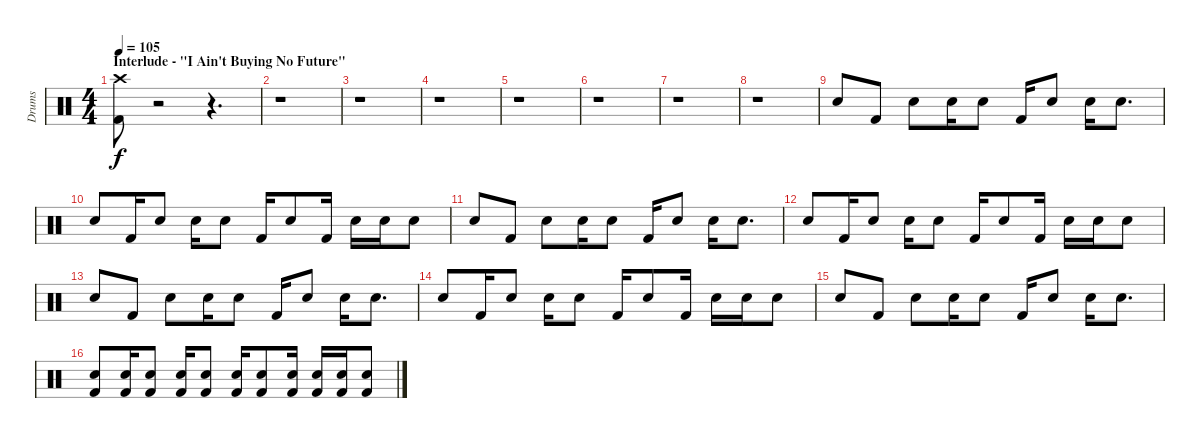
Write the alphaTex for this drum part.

\track ("Drums" "Drums") {instrument percussion}
\staff {score}
\articulation defaults
\ts (4 4)
\section ("" "Interlude - \"I Ain't Buying No Future\"")
\tempo 105
\clef neutral
\ks c
("Kick (hit) 2" "Crash high (hit)").8{dy f} r.2 r.4{d} |
r.1 |
r.1 |
r.1 |
r.1 |
r.1 |
r.1 |
r.1 |
"Snare (hit) 2".8 "Kick (hit) 2".8 "Snare (hit) 2".8 "Snare (hit) 2".16 "Snare (hit) 2".8 "Kick (hit) 2".16 "Snare (hit) 2".8 "Snare (hit) 2".16 "Snare (hit) 2".8{d} |
"Snare (hit) 2".8 "Kick (hit) 2".16 "Snare (hit) 2".8 "Snare (hit) 2".16 "Snare (hit) 2".8 "Kick (hit) 2".16 "Snare (hit) 2".8 "Kick (hit) 2".16 "Snare (hit) 2".16 "Snare (hit) 2".16 "Snare (hit) 2".8 |
"Snare (hit) 2".8 "Kick (hit) 2".8 "Snare (hit) 2".8 "Snare (hit) 2".16 "Snare (hit) 2".8 "Kick (hit) 2".16 "Snare (hit) 2".8 "Snare (hit) 2".16 "Snare (hit) 2".8{d} |
"Snare (hit) 2".8 "Kick (hit) 2".16 "Snare (hit) 2".8 "Snare (hit) 2".16 "Snare (hit) 2".8 "Kick (hit) 2".16 "Snare (hit) 2".8 "Kick (hit) 2".16 "Snare (hit) 2".16 "Snare (hit) 2".16 "Snare (hit) 2".8 |
"Snare (hit) 2".8 "Kick (hit) 2".8 "Snare (hit) 2".8 "Snare (hit) 2".16 "Snare (hit) 2".8 "Kick (hit) 2".16 "Snare (hit) 2".8 "Snare (hit) 2".16 "Snare (hit) 2".8{d} |
"Snare (hit) 2".8 "Kick (hit) 2".16 "Snare (hit) 2".8 "Snare (hit) 2".16 "Snare (hit) 2".8 "Kick (hit) 2".16 "Snare (hit) 2".8 "Kick (hit) 2".16 "Snare (hit) 2".16 "Snare (hit) 2".16 "Snare (hit) 2".8 |
"Snare (hit) 2".8 "Kick (hit) 2".8 "Snare (hit) 2".8 "Snare (hit) 2".16 "Snare (hit) 2".8 "Kick (hit) 2".16 "Snare (hit) 2".8 "Snare (hit) 2".16 "Snare (hit) 2".8{d} |
("Snare (hit) 2" "Kick (hit) 2").8 ("Snare (hit) 2" "Kick (hit) 2").16 ("Snare (hit) 2" "Kick (hit) 2").8 ("Snare (hit) 2" "Kick (hit) 2").16 ("Snare (hit) 2" "Kick (hit) 2").8 ("Snare (hit) 2" "Kick (hit) 2").16 ("Snare (hit) 2" "Kick (hit) 2").8 ("Snare (hit) 2" "Kick (hit) 2").16 ("Snare (hit) 2" "Kick (hit) 2").16 ("Snare (hit) 2" "Kick (hit) 2").16 ("Snare (hit) 2" "Kick (hit) 2").8
